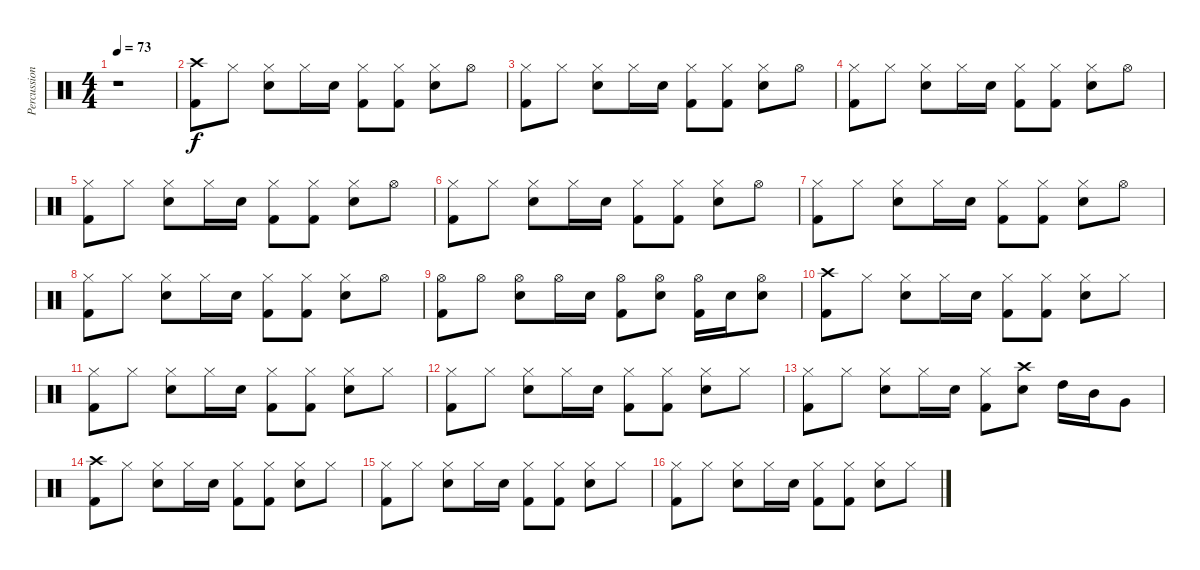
\track ("Percussioni" "Percussion") {instrument percussion}
\staff {score}
\articulation defaults
\ts (4 4)
\tempo 73
\clef neutral
\ks c
r.1{dy f} |
("Crash high (hit)" "Kick (hit) 2").8 "Hi-Hat (closed)".8 ("Hi-Hat (closed)" "Electric Snare (hit)").8 "Hi-Hat (closed)".16 "Electric Snare (hit)".16 ("Hi-Hat (closed)" "Kick (hit) 2").8 ("Hi-Hat (closed)" "Kick (hit) 2").8 ("Hi-Hat (closed)" "Electric Snare (hit)").8 "Hi-Hat (open)".8 |
("Hi-Hat (closed)" "Kick (hit) 2").8 "Hi-Hat (closed)".8 ("Hi-Hat (closed)" "Electric Snare (hit)").8 "Hi-Hat (closed)".16 "Electric Snare (hit)".16 ("Hi-Hat (closed)" "Kick (hit) 2").8 ("Hi-Hat (closed)" "Kick (hit) 2").8 ("Hi-Hat (closed)" "Electric Snare (hit)").8 "Hi-Hat (open)".8 |
("Hi-Hat (closed)" "Kick (hit) 2").8 "Hi-Hat (closed)".8 ("Hi-Hat (closed)" "Electric Snare (hit)").8 "Hi-Hat (closed)".16 "Electric Snare (hit)".16 ("Hi-Hat (closed)" "Kick (hit) 2").8 ("Hi-Hat (closed)" "Kick (hit) 2").8 ("Hi-Hat (closed)" "Electric Snare (hit)").8 "Hi-Hat (open)".8 |
("Hi-Hat (closed)" "Kick (hit) 2").8 "Hi-Hat (closed)".8 ("Hi-Hat (closed)" "Electric Snare (hit)").8 "Hi-Hat (closed)".16 "Electric Snare (hit)".16 ("Hi-Hat (closed)" "Kick (hit) 2").8 ("Hi-Hat (closed)" "Kick (hit) 2").8 ("Hi-Hat (closed)" "Electric Snare (hit)").8 "Hi-Hat (open)".8 |
("Hi-Hat (closed)" "Kick (hit) 2").8 "Hi-Hat (closed)".8 ("Hi-Hat (closed)" "Electric Snare (hit)").8 "Hi-Hat (closed)".16 "Electric Snare (hit)".16 ("Hi-Hat (closed)" "Kick (hit) 2").8 ("Hi-Hat (closed)" "Kick (hit) 2").8 ("Hi-Hat (closed)" "Electric Snare (hit)").8 "Hi-Hat (open)".8 |
("Hi-Hat (closed)" "Kick (hit) 2").8 "Hi-Hat (closed)".8 ("Hi-Hat (closed)" "Electric Snare (hit)").8 "Hi-Hat (closed)".16 "Electric Snare (hit)".16 ("Hi-Hat (closed)" "Kick (hit) 2").8 ("Hi-Hat (closed)" "Kick (hit) 2").8 ("Hi-Hat (closed)" "Electric Snare (hit)").8 "Hi-Hat (open)".8 |
("Hi-Hat (closed)" "Kick (hit) 2").8 "Hi-Hat (closed)".8 ("Hi-Hat (closed)" "Electric Snare (hit)").8 "Hi-Hat (closed)".16 "Electric Snare (hit)".16 ("Hi-Hat (closed)" "Kick (hit) 2").8 ("Hi-Hat (closed)" "Kick (hit) 2").8 ("Hi-Hat (closed)" "Electric Snare (hit)").8 "Hi-Hat (open)".8 |
("Hi-Hat (open)" "Kick (hit) 2").8 "Hi-Hat (open)".8 ("Hi-Hat (open)" "Electric Snare (hit)").8 "Hi-Hat (open)".16 "Electric Snare (hit)".16 ("Hi-Hat (open)" "Kick (hit) 2").8 ("Hi-Hat (open)" "Electric Snare (hit)").8 ("Hi-Hat (open)" "Kick (hit) 2").16 "Electric Snare (hit)".16 ("Hi-Hat (open)" "Electric Snare (hit)").8 |
("Crash high (hit)" "Kick (hit) 2").8 "Hi-Hat (closed)".8 ("Hi-Hat (closed)" "Electric Snare (hit)").8 "Hi-Hat (closed)".16 "Electric Snare (hit)".16 ("Hi-Hat (closed)" "Kick (hit) 2").8 ("Hi-Hat (closed)" "Kick (hit) 2").8 ("Hi-Hat (closed)" "Electric Snare (hit)").8 "Hi-Hat (closed)".8 |
("Hi-Hat (closed)" "Kick (hit) 2").8 "Hi-Hat (closed)".8 ("Hi-Hat (closed)" "Electric Snare (hit)").8 "Hi-Hat (closed)".16 "Electric Snare (hit)".16 ("Hi-Hat (closed)" "Kick (hit) 2").8 ("Hi-Hat (closed)" "Kick (hit) 2").8 ("Hi-Hat (closed)" "Electric Snare (hit)").8 "Hi-Hat (closed)".8 |
("Hi-Hat (closed)" "Kick (hit) 2").8 "Hi-Hat (closed)".8 ("Hi-Hat (closed)" "Electric Snare (hit)").8 "Hi-Hat (closed)".16 "Electric Snare (hit)".16 ("Hi-Hat (closed)" "Kick (hit) 2").8 ("Hi-Hat (closed)" "Kick (hit) 2").8 ("Hi-Hat (closed)" "Electric Snare (hit)").8 "Hi-Hat (closed)".8 |
("Hi-Hat (closed)" "Kick (hit) 2").8 "Hi-Hat (closed)".8 ("Hi-Hat (closed)" "Electric Snare (hit)").8 "Hi-Hat (closed)".16 "Electric Snare (hit)".16 ("Hi-Hat (closed)" "Kick (hit) 2").8 ("Crash high (hit)" "Electric Snare (hit)").8 "High Tom (hit)".16 "Mid Tom (hit)".16 "Very Low Tom (hit)".8 |
("Crash high (hit)" "Kick (hit) 2").8 "Hi-Hat (closed)".8 ("Hi-Hat (closed)" "Electric Snare (hit)").8 "Hi-Hat (closed)".16 "Electric Snare (hit)".16 ("Hi-Hat (closed)" "Kick (hit) 2").8 ("Hi-Hat (closed)" "Kick (hit) 2").8 ("Hi-Hat (closed)" "Electric Snare (hit)").8 "Hi-Hat (closed)".8 |
("Hi-Hat (closed)" "Kick (hit) 2").8 "Hi-Hat (closed)".8 ("Hi-Hat (closed)" "Electric Snare (hit)").8 "Hi-Hat (closed)".16 "Electric Snare (hit)".16 ("Hi-Hat (closed)" "Kick (hit) 2").8 ("Hi-Hat (closed)" "Kick (hit) 2").8 ("Hi-Hat (closed)" "Electric Snare (hit)").8 "Hi-Hat (closed)".8 |
("Hi-Hat (closed)" "Kick (hit) 2").8 "Hi-Hat (closed)".8 ("Hi-Hat (closed)" "Electric Snare (hit)").8 "Hi-Hat (closed)".16 "Electric Snare (hit)".16 ("Hi-Hat (closed)" "Kick (hit) 2").8 ("Hi-Hat (closed)" "Kick (hit) 2").8 ("Hi-Hat (closed)" "Electric Snare (hit)").8 "Hi-Hat (closed)".8
